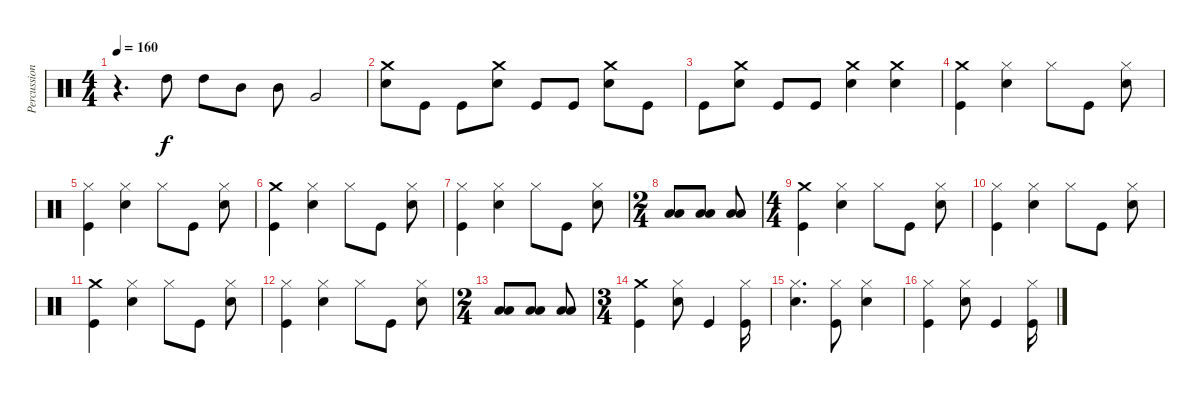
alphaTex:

\track ("Percussion" "Percussion") {instrument percussion}
\staff {score}
\articulation defaults
\ts (4 4)
\tempo 160
\clef neutral
\ks c
r.4{d dy f} "High Tom (hit)".8 "High Tom (hit)".8 "Mid Tom (hit)".8 "Mid Tom (hit)".8 "Very Low Tom (hit)".2 |
("Crash medium (hit)" "Snare (hit) 2").8 "Kick (hit)".8 "Kick (hit)".8 ("Crash medium (hit)" "Snare (hit) 2").8 "Kick (hit)".8 "Kick (hit)".8 ("Crash medium (hit)" "Snare (hit) 2").8 "Kick (hit)".8 |
"Kick (hit)".8 ("Crash medium (hit)" "Snare (hit) 2").8 "Kick (hit)".8 "Kick (hit)".8 ("Crash medium (hit)" "Snare (hit) 2").4 ("Crash medium (hit)" "Snare (hit) 2").4 |
("Crash medium (hit)" "Kick (hit)").4 ("Hi-Hat (closed)" "Snare (hit) 2").4 "Hi-Hat (closed)".8 "Kick (hit)".8 ("Hi-Hat (closed)" "Snare (hit) 2").8 |
("Hi-Hat (closed)" "Kick (hit)").4 ("Hi-Hat (closed)" "Snare (hit) 2").4 "Hi-Hat (closed)".8 "Kick (hit)".8 ("Hi-Hat (closed)" "Snare (hit) 2").8 |
("Crash medium (hit)" "Kick (hit)").4 ("Hi-Hat (closed)" "Snare (hit) 2").4 "Hi-Hat (closed)".8 "Kick (hit)".8 ("Hi-Hat (closed)" "Snare (hit) 2").8 |
("Hi-Hat (closed)" "Kick (hit)").4 ("Hi-Hat (closed)" "Snare (hit) 2").4 "Hi-Hat (closed)".8 "Kick (hit)".8 ("Hi-Hat (closed)" "Snare (hit) 2").8 |
\ts (2 4)
("Low Floor Tom (hit)" "Low Tom (hit)").8 ("Low Floor Tom (hit)" "Low Tom (hit)").8 ("Low Floor Tom (hit)" "Low Tom (hit)").8 |
\ts (4 4)
("Crash medium (hit)" "Kick (hit)").4 ("Hi-Hat (closed)" "Snare (hit) 2").4 "Hi-Hat (closed)".8 "Kick (hit)".8 ("Hi-Hat (closed)" "Snare (hit) 2").8 |
("Hi-Hat (closed)" "Kick (hit)").4 ("Hi-Hat (closed)" "Snare (hit) 2").4 "Hi-Hat (closed)".8 "Kick (hit)".8 ("Hi-Hat (closed)" "Snare (hit) 2").8 |
("Crash medium (hit)" "Kick (hit)").4 ("Hi-Hat (closed)" "Snare (hit) 2").4 "Hi-Hat (closed)".8 "Kick (hit)".8 ("Hi-Hat (closed)" "Snare (hit) 2").8 |
("Hi-Hat (closed)" "Kick (hit)").4 ("Hi-Hat (closed)" "Snare (hit) 2").4 "Hi-Hat (closed)".8 "Kick (hit)".8 ("Hi-Hat (closed)" "Snare (hit) 2").8 |
\ts (2 4)
("Low Floor Tom (hit)" "Low Tom (hit)").8 ("Low Floor Tom (hit)" "Low Tom (hit)").8 ("Low Floor Tom (hit)" "Low Tom (hit)").8 |
\ts (3 4)
("Crash medium (hit)" "Kick (hit)").4 ("Hi-Hat (closed)" "Snare (hit) 2").8 "Kick (hit)".4 ("Hi-Hat (closed)" "Kick (hit)").16 |
("Hi-Hat (closed)" "Snare (hit) 2").4{d} ("Hi-Hat (closed)" "Kick (hit)").8 ("Hi-Hat (closed)" "Snare (hit) 2").4 |
("Hi-Hat (closed)" "Kick (hit)").4 ("Hi-Hat (closed)" "Snare (hit) 2").8 "Kick (hit)".4 ("Hi-Hat (closed)" "Kick (hit)").16
